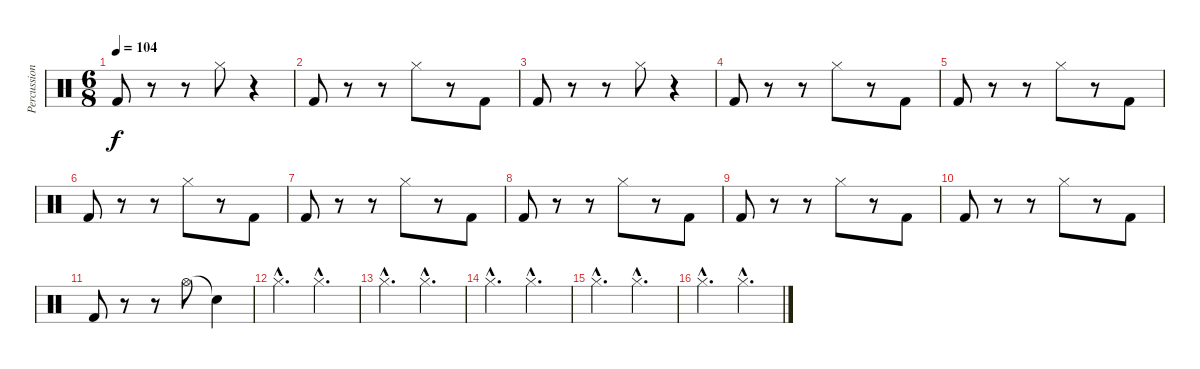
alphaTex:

\track ("Percussion" "Percussion") {instrument percussion}
\staff {score}
\articulation defaults
\ts (6 8)
\tempo 104
\clef neutral
\ks c "Kick (hit) 2".8{dy f}
r.8 r.8 "Hi-Hat (closed)".8 r.4 |
"Kick (hit) 2".8 r.8 r.8 "Hi-Hat (closed)".8 r.8 "Kick (hit) 2".8 |
"Kick (hit) 2".8 r.8 r.8 "Hi-Hat (closed)".8 r.4 |
"Kick (hit) 2".8 r.8 r.8 "Hi-Hat (closed)".8 r.8 "Kick (hit) 2".8 |
"Kick (hit) 2".8 r.8 r.8 "Hi-Hat (closed)".8 r.8 "Kick (hit) 2".8 |
"Kick (hit) 2".8 r.8 r.8 "Hi-Hat (closed)".8 r.8 "Kick (hit) 2".8 |
"Kick (hit) 2".8 r.8 r.8 "Hi-Hat (closed)".8 r.8 "Kick (hit) 2".8 |
"Kick (hit) 2".8 r.8 r.8 "Hi-Hat (closed)".8 r.8 "Kick (hit) 2".8 |
"Kick (hit) 2".8 r.8 r.8 "Hi-Hat (closed)".8 r.8 "Kick (hit) 2".8 |
"Kick (hit) 2".8 r.8 r.8 "Hi-Hat (closed)".8 r.8 "Kick (hit) 2".8 |
"Kick (hit) 2".8 r.8 r.8 "Hi-Hat (open)".8 "Snare (hit)"{t}.4 |
"Hi-Hat (closed)"{hac}.4{d} "Hi-Hat (closed)"{hac}.4{d} |
"Hi-Hat (closed)"{hac}.4{d} "Hi-Hat (closed)"{hac}.4{d} |
"Hi-Hat (closed)"{hac}.4{d} "Hi-Hat (closed)"{hac}.4{d} |
"Hi-Hat (closed)"{hac}.4{d} "Hi-Hat (closed)"{hac}.4{d} |
"Hi-Hat (closed)"{hac}.4{d} "Hi-Hat (closed)"{hac}.4{d}
